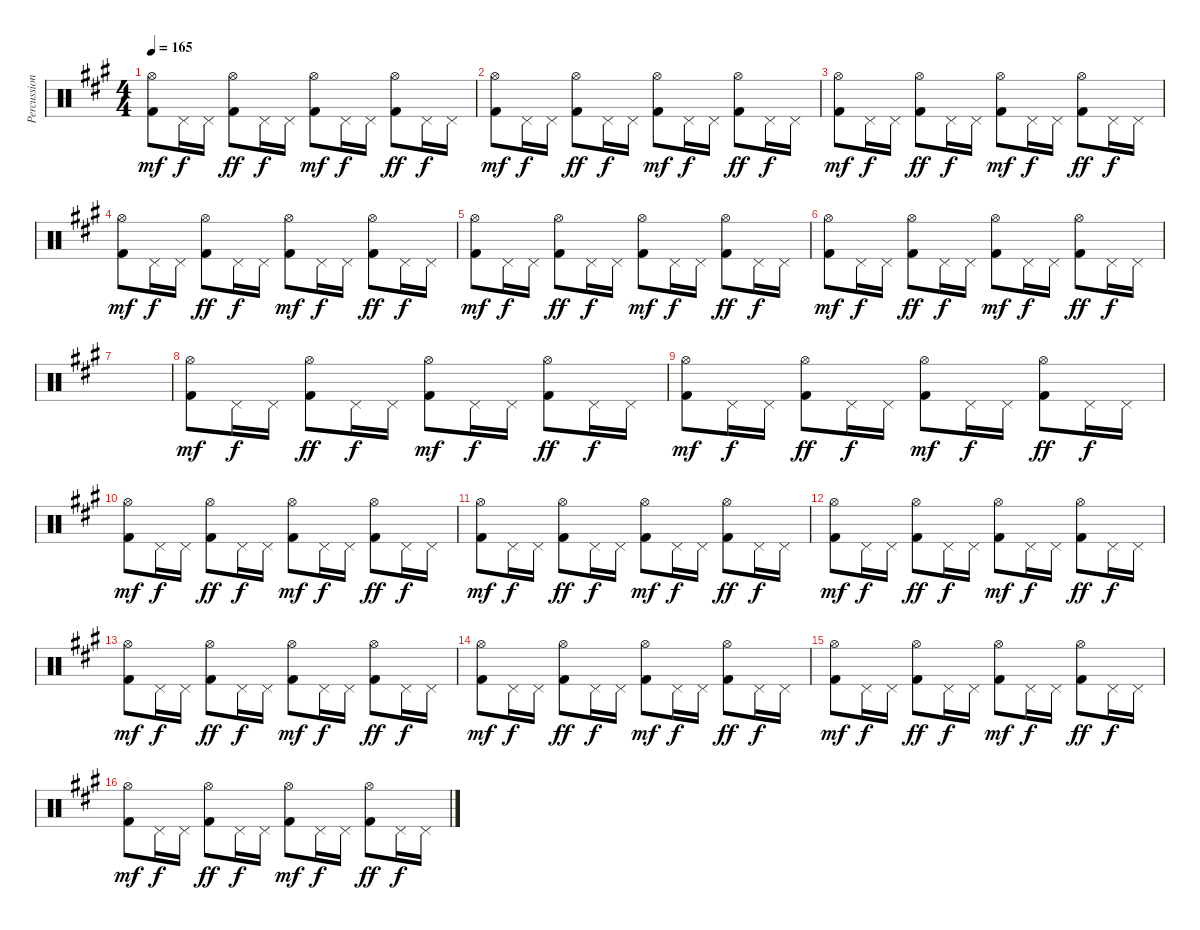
\track ("Percussion" "Percussion") {instrument percussion}
\staff {score}
\articulation defaults
\ts (4 4)
\tempo 165
\clef neutral
\ks a
("Hi-Hat (open)" "Kick (hit) 2").8{dy mf} "Pedal Hi-Hat (hit)".16{dy f} "Pedal Hi-Hat (hit)".16 ("Hi-Hat (open)" "Kick (hit) 2").8{dy ff} "Pedal Hi-Hat (hit)".16{dy f} "Pedal Hi-Hat (hit)".16 ("Hi-Hat (open)" "Kick (hit) 2").8{dy mf} "Pedal Hi-Hat (hit)".16{dy f} "Pedal Hi-Hat (hit)".16 ("Hi-Hat (open)" "Kick (hit) 2").8{dy ff} "Pedal Hi-Hat (hit)".16{dy f} "Pedal Hi-Hat (hit)".16 |
("Hi-Hat (open)" "Kick (hit) 2").8{dy mf} "Pedal Hi-Hat (hit)".16{dy f} "Pedal Hi-Hat (hit)".16 ("Hi-Hat (open)" "Kick (hit) 2").8{dy ff} "Pedal Hi-Hat (hit)".16{dy f} "Pedal Hi-Hat (hit)".16 ("Hi-Hat (open)" "Kick (hit) 2").8{dy mf} "Pedal Hi-Hat (hit)".16{dy f} "Pedal Hi-Hat (hit)".16 ("Hi-Hat (open)" "Kick (hit) 2").8{dy ff} "Pedal Hi-Hat (hit)".16{dy f} "Pedal Hi-Hat (hit)".16 |
("Hi-Hat (open)" "Kick (hit) 2").8{dy mf} "Pedal Hi-Hat (hit)".16{dy f} "Pedal Hi-Hat (hit)".16 ("Hi-Hat (open)" "Kick (hit) 2").8{dy ff} "Pedal Hi-Hat (hit)".16{dy f} "Pedal Hi-Hat (hit)".16 ("Hi-Hat (open)" "Kick (hit) 2").8{dy mf} "Pedal Hi-Hat (hit)".16{dy f} "Pedal Hi-Hat (hit)".16 ("Hi-Hat (open)" "Kick (hit) 2").8{dy ff} "Pedal Hi-Hat (hit)".16{dy f} "Pedal Hi-Hat (hit)".16 |
("Hi-Hat (open)" "Kick (hit) 2").8{dy mf} "Pedal Hi-Hat (hit)".16{dy f} "Pedal Hi-Hat (hit)".16 ("Hi-Hat (open)" "Kick (hit) 2").8{dy ff} "Pedal Hi-Hat (hit)".16{dy f} "Pedal Hi-Hat (hit)".16 ("Hi-Hat (open)" "Kick (hit) 2").8{dy mf} "Pedal Hi-Hat (hit)".16{dy f} "Pedal Hi-Hat (hit)".16 ("Hi-Hat (open)" "Kick (hit) 2").8{dy ff} "Pedal Hi-Hat (hit)".16{dy f} "Pedal Hi-Hat (hit)".16 |
("Hi-Hat (open)" "Kick (hit) 2").8{dy mf} "Pedal Hi-Hat (hit)".16{dy f} "Pedal Hi-Hat (hit)".16 ("Hi-Hat (open)" "Kick (hit) 2").8{dy ff} "Pedal Hi-Hat (hit)".16{dy f} "Pedal Hi-Hat (hit)".16 ("Hi-Hat (open)" "Kick (hit) 2").8{dy mf} "Pedal Hi-Hat (hit)".16{dy f} "Pedal Hi-Hat (hit)".16 ("Hi-Hat (open)" "Kick (hit) 2").8{dy ff} "Pedal Hi-Hat (hit)".16{dy f} "Pedal Hi-Hat (hit)".16 |
("Hi-Hat (open)" "Kick (hit) 2").8{dy mf} "Pedal Hi-Hat (hit)".16{dy f} "Pedal Hi-Hat (hit)".16 ("Hi-Hat (open)" "Kick (hit) 2").8{dy ff} "Pedal Hi-Hat (hit)".16{dy f} "Pedal Hi-Hat (hit)".16 ("Hi-Hat (open)" "Kick (hit) 2").8{dy mf} "Pedal Hi-Hat (hit)".16{dy f} "Pedal Hi-Hat (hit)".16 ("Hi-Hat (open)" "Kick (hit) 2").8{dy ff} "Pedal Hi-Hat (hit)".16{dy f} "Pedal Hi-Hat (hit)".16 |
|
("Hi-Hat (open)" "Kick (hit) 2").8{dy mf} "Pedal Hi-Hat (hit)".16{dy f} "Pedal Hi-Hat (hit)".16 ("Hi-Hat (open)" "Kick (hit) 2").8{dy ff} "Pedal Hi-Hat (hit)".16{dy f} "Pedal Hi-Hat (hit)".16 ("Hi-Hat (open)" "Kick (hit) 2").8{dy mf} "Pedal Hi-Hat (hit)".16{dy f} "Pedal Hi-Hat (hit)".16 ("Hi-Hat (open)" "Kick (hit) 2").8{dy ff} "Pedal Hi-Hat (hit)".16{dy f} "Pedal Hi-Hat (hit)".16 |
("Hi-Hat (open)" "Kick (hit) 2").8{dy mf} "Pedal Hi-Hat (hit)".16{dy f} "Pedal Hi-Hat (hit)".16 ("Hi-Hat (open)" "Kick (hit) 2").8{dy ff} "Pedal Hi-Hat (hit)".16{dy f} "Pedal Hi-Hat (hit)".16 ("Hi-Hat (open)" "Kick (hit) 2").8{dy mf} "Pedal Hi-Hat (hit)".16{dy f} "Pedal Hi-Hat (hit)".16 ("Hi-Hat (open)" "Kick (hit) 2").8{dy ff} "Pedal Hi-Hat (hit)".16{dy f} "Pedal Hi-Hat (hit)".16 |
("Hi-Hat (open)" "Kick (hit) 2").8{dy mf} "Pedal Hi-Hat (hit)".16{dy f} "Pedal Hi-Hat (hit)".16 ("Hi-Hat (open)" "Kick (hit) 2").8{dy ff} "Pedal Hi-Hat (hit)".16{dy f} "Pedal Hi-Hat (hit)".16 ("Hi-Hat (open)" "Kick (hit) 2").8{dy mf} "Pedal Hi-Hat (hit)".16{dy f} "Pedal Hi-Hat (hit)".16 ("Hi-Hat (open)" "Kick (hit) 2").8{dy ff} "Pedal Hi-Hat (hit)".16{dy f} "Pedal Hi-Hat (hit)".16 |
("Hi-Hat (open)" "Kick (hit) 2").8{dy mf} "Pedal Hi-Hat (hit)".16{dy f} "Pedal Hi-Hat (hit)".16 ("Hi-Hat (open)" "Kick (hit) 2").8{dy ff} "Pedal Hi-Hat (hit)".16{dy f} "Pedal Hi-Hat (hit)".16 ("Hi-Hat (open)" "Kick (hit) 2").8{dy mf} "Pedal Hi-Hat (hit)".16{dy f} "Pedal Hi-Hat (hit)".16 ("Hi-Hat (open)" "Kick (hit) 2").8{dy ff} "Pedal Hi-Hat (hit)".16{dy f} "Pedal Hi-Hat (hit)".16 |
("Hi-Hat (open)" "Kick (hit) 2").8{dy mf} "Pedal Hi-Hat (hit)".16{dy f} "Pedal Hi-Hat (hit)".16 ("Hi-Hat (open)" "Kick (hit) 2").8{dy ff} "Pedal Hi-Hat (hit)".16{dy f} "Pedal Hi-Hat (hit)".16 ("Hi-Hat (open)" "Kick (hit) 2").8{dy mf} "Pedal Hi-Hat (hit)".16{dy f} "Pedal Hi-Hat (hit)".16 ("Hi-Hat (open)" "Kick (hit) 2").8{dy ff} "Pedal Hi-Hat (hit)".16{dy f} "Pedal Hi-Hat (hit)".16 |
("Hi-Hat (open)" "Kick (hit) 2").8{dy mf} "Pedal Hi-Hat (hit)".16{dy f} "Pedal Hi-Hat (hit)".16 ("Hi-Hat (open)" "Kick (hit) 2").8{dy ff} "Pedal Hi-Hat (hit)".16{dy f} "Pedal Hi-Hat (hit)".16 ("Hi-Hat (open)" "Kick (hit) 2").8{dy mf} "Pedal Hi-Hat (hit)".16{dy f} "Pedal Hi-Hat (hit)".16 ("Hi-Hat (open)" "Kick (hit) 2").8{dy ff} "Pedal Hi-Hat (hit)".16{dy f} "Pedal Hi-Hat (hit)".16 |
("Hi-Hat (open)" "Kick (hit) 2").8{dy mf} "Pedal Hi-Hat (hit)".16{dy f} "Pedal Hi-Hat (hit)".16 ("Hi-Hat (open)" "Kick (hit) 2").8{dy ff} "Pedal Hi-Hat (hit)".16{dy f} "Pedal Hi-Hat (hit)".16 ("Hi-Hat (open)" "Kick (hit) 2").8{dy mf} "Pedal Hi-Hat (hit)".16{dy f} "Pedal Hi-Hat (hit)".16 ("Hi-Hat (open)" "Kick (hit) 2").8{dy ff} "Pedal Hi-Hat (hit)".16{dy f} "Pedal Hi-Hat (hit)".16 |
("Hi-Hat (open)" "Kick (hit) 2").8{dy mf} "Pedal Hi-Hat (hit)".16{dy f} "Pedal Hi-Hat (hit)".16 ("Hi-Hat (open)" "Kick (hit) 2").8{dy ff} "Pedal Hi-Hat (hit)".16{dy f} "Pedal Hi-Hat (hit)".16 ("Hi-Hat (open)" "Kick (hit) 2").8{dy mf} "Pedal Hi-Hat (hit)".16{dy f} "Pedal Hi-Hat (hit)".16 ("Hi-Hat (open)" "Kick (hit) 2").8{dy ff} "Pedal Hi-Hat (hit)".16{dy f} "Pedal Hi-Hat (hit)".16 |
("Hi-Hat (open)" "Kick (hit) 2").8{dy mf} "Pedal Hi-Hat (hit)".16{dy f} "Pedal Hi-Hat (hit)".16 ("Hi-Hat (open)" "Kick (hit) 2").8{dy ff} "Pedal Hi-Hat (hit)".16{dy f} "Pedal Hi-Hat (hit)".16 ("Hi-Hat (open)" "Kick (hit) 2").8{dy mf} "Pedal Hi-Hat (hit)".16{dy f} "Pedal Hi-Hat (hit)".16 ("Hi-Hat (open)" "Kick (hit) 2").8{dy ff} "Pedal Hi-Hat (hit)".16{dy f} "Pedal Hi-Hat (hit)".16
